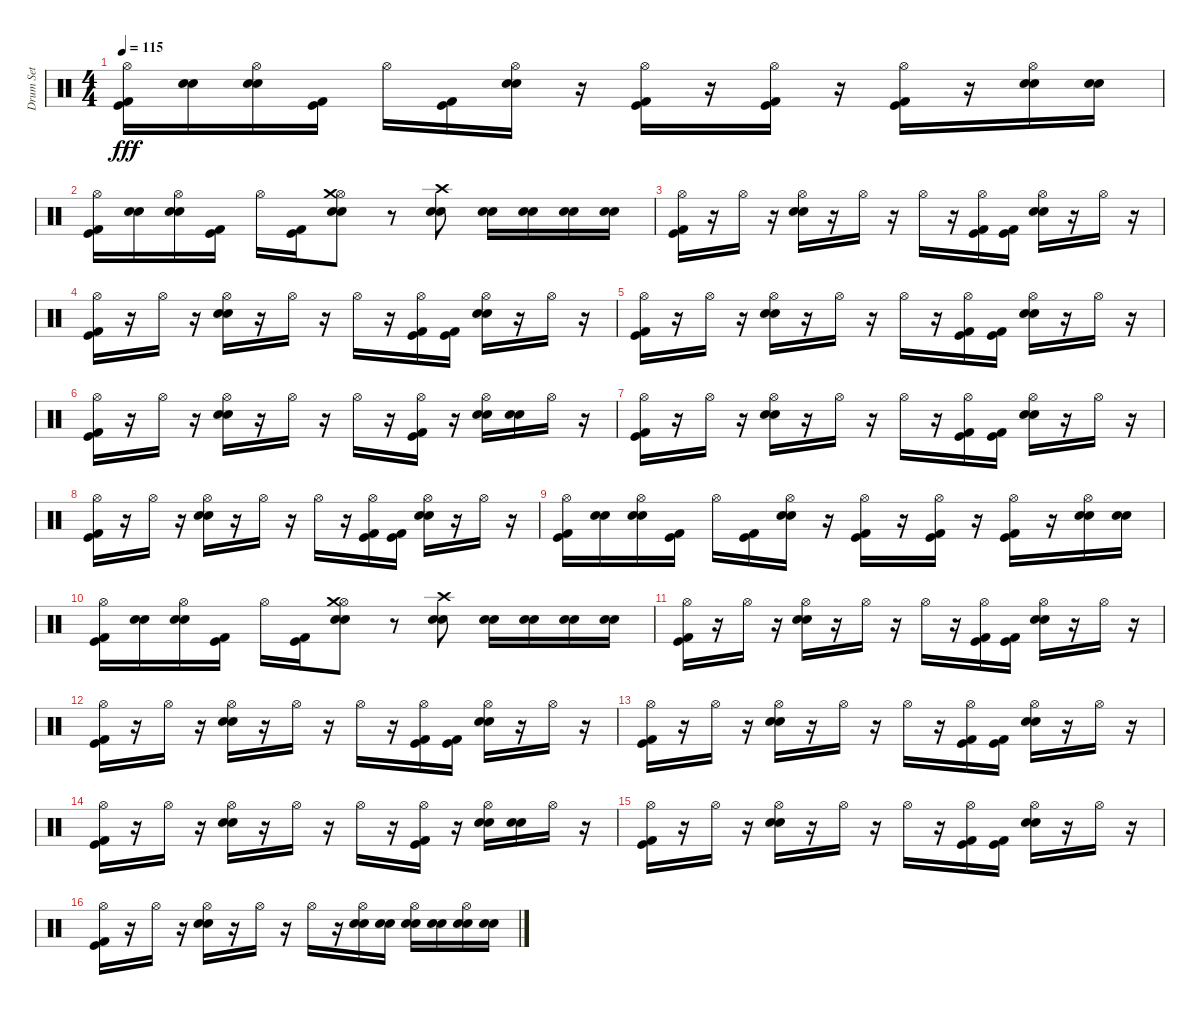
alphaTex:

\track ("Drum Set" "Drum Set") {instrument percussion}
\staff {score}
\articulation defaults
\ts (4 4)
\tempo 115
\clef neutral
\ks c
("Hi-Hat (open)" "Kick (hit) 2" "Kick (hit)").16{dy fff} ("Electric Snare (hit)" "Snare (hit) 2").16 ("Hi-Hat (open)" "Snare (hit) 2" "Electric Snare (hit)").16 ("Kick (hit)" "Kick (hit) 2").16 "Hi-Hat (open)".16 ("Kick (hit) 2" "Kick (hit)").16 ("Hi-Hat (open)" "Electric Snare (hit)" "Snare (hit) 2").16 r.16 ("Kick (hit)" "Kick (hit) 2" "Hi-Hat (open)").16 r.16 ("Hi-Hat (open)" "Kick (hit) 2" "Kick (hit)").16 r.16 ("Hi-Hat (open)" "Kick (hit)" "Kick (hit) 2").16 r.16 ("Hi-Hat (open)" "Electric Snare (hit)" "Snare (hit) 2").16 ("Snare (hit) 2" "Electric Snare (hit)").16 |
("Hi-Hat (open)" "Kick (hit) 2" "Kick (hit)").16 ("Electric Snare (hit)" "Snare (hit) 2").16 ("Hi-Hat (open)" "Snare (hit) 2" "Electric Snare (hit)").16 ("Kick (hit)" "Kick (hit) 2").16 "Hi-Hat (open)".16 ("Kick (hit) 2" "Kick (hit)").16 ("Hi-Hat (open)" "Electric Snare (hit)" "Snare (hit) 2" "Crash medium (hit)").8 r.8 ("Snare (hit) 2" "Electric Snare (hit)" "Crash high (hit)").8 ("Snare (hit) 2" "Electric Snare (hit)").16 ("Electric Snare (hit)" "Snare (hit) 2").16 ("Snare (hit) 2" "Electric Snare (hit)").16 ("Electric Snare (hit)" "Snare (hit) 2").16 |
("Hi-Hat (open)" "Kick (hit)" "Kick (hit) 2").16 r.16 "Hi-Hat (open)".16 r.16 ("Hi-Hat (open)" "Electric Snare (hit)" "Snare (hit) 2").16 r.16 "Hi-Hat (open)".16 r.16 "Hi-Hat (open)".16 r.16 ("Hi-Hat (open)" "Kick (hit) 2" "Kick (hit)").16 ("Kick (hit) 2" "Kick (hit)").16 ("Hi-Hat (open)" "Electric Snare (hit)" "Snare (hit) 2").16 r.16 "Hi-Hat (open)".16 r.16 |
("Kick (hit)" "Kick (hit) 2" "Hi-Hat (open)").16 r.16 "Hi-Hat (open)".16 r.16 ("Electric Snare (hit)" "Snare (hit) 2" "Hi-Hat (open)").16 r.16 "Hi-Hat (open)".16 r.16 "Hi-Hat (open)".16 r.16 ("Kick (hit) 2" "Kick (hit)" "Hi-Hat (open)").16 ("Kick (hit) 2" "Kick (hit)").16 ("Electric Snare (hit)" "Snare (hit) 2" "Hi-Hat (open)").16 r.16 "Hi-Hat (open)".16 r.16 |
("Kick (hit)" "Kick (hit) 2" "Hi-Hat (open)").16 r.16 "Hi-Hat (open)".16 r.16 ("Electric Snare (hit)" "Snare (hit) 2" "Hi-Hat (open)").16 r.16 "Hi-Hat (open)".16 r.16 "Hi-Hat (open)".16 r.16 ("Kick (hit) 2" "Kick (hit)" "Hi-Hat (open)").16 ("Kick (hit) 2" "Kick (hit)").16 ("Electric Snare (hit)" "Snare (hit) 2" "Hi-Hat (open)").16 r.16 "Hi-Hat (open)".16 r.16 |
("Kick (hit)" "Kick (hit) 2" "Hi-Hat (open)").16 r.16 "Hi-Hat (open)".16 r.16 ("Electric Snare (hit)" "Snare (hit) 2" "Hi-Hat (open)").16 r.16 "Hi-Hat (open)".16 r.16 "Hi-Hat (open)".16 r.16 ("Kick (hit) 2" "Kick (hit)" "Hi-Hat (open)").16 r.16 ("Electric Snare (hit)" "Snare (hit) 2" "Hi-Hat (open)").16 ("Snare (hit) 2" "Electric Snare (hit)").16 "Hi-Hat (open)".16 r.16 |
("Hi-Hat (open)" "Kick (hit)" "Kick (hit) 2").16 r.16 "Hi-Hat (open)".16 r.16 ("Electric Snare (hit)" "Snare (hit) 2" "Hi-Hat (open)").16 r.16 "Hi-Hat (open)".16 r.16 "Hi-Hat (open)".16 r.16 ("Hi-Hat (open)" "Kick (hit)" "Kick (hit) 2").16 ("Kick (hit) 2" "Kick (hit)").16 ("Hi-Hat (open)" "Electric Snare (hit)" "Snare (hit) 2").16 r.16 "Hi-Hat (open)".16 r.16 |
("Kick (hit) 2" "Kick (hit)" "Hi-Hat (open)").16 r.16 "Hi-Hat (open)".16 r.16 ("Electric Snare (hit)" "Snare (hit) 2" "Hi-Hat (open)").16 r.16 "Hi-Hat (open)".16 r.16 "Hi-Hat (open)".16 r.16 ("Kick (hit) 2" "Kick (hit)" "Hi-Hat (open)").16 ("Kick (hit)" "Kick (hit) 2").16 ("Electric Snare (hit)" "Snare (hit) 2" "Hi-Hat (open)").16 r.16 "Hi-Hat (open)".16 r.16 |
("Hi-Hat (open)" "Kick (hit) 2" "Kick (hit)").16 ("Electric Snare (hit)" "Snare (hit) 2").16 ("Hi-Hat (open)" "Snare (hit) 2" "Electric Snare (hit)").16 ("Kick (hit)" "Kick (hit) 2").16 "Hi-Hat (open)".16 ("Kick (hit) 2" "Kick (hit)").16 ("Hi-Hat (open)" "Electric Snare (hit)" "Snare (hit) 2").16 r.16 ("Kick (hit)" "Kick (hit) 2" "Hi-Hat (open)").16 r.16 ("Hi-Hat (open)" "Kick (hit) 2" "Kick (hit)").16 r.16 ("Hi-Hat (open)" "Kick (hit)" "Kick (hit) 2").16 r.16 ("Hi-Hat (open)" "Electric Snare (hit)" "Snare (hit) 2").16 ("Snare (hit) 2" "Electric Snare (hit)").16 |
("Hi-Hat (open)" "Kick (hit) 2" "Kick (hit)").16 ("Electric Snare (hit)" "Snare (hit) 2").16 ("Hi-Hat (open)" "Snare (hit) 2" "Electric Snare (hit)").16 ("Kick (hit)" "Kick (hit) 2").16 "Hi-Hat (open)".16 ("Kick (hit) 2" "Kick (hit)").16 ("Hi-Hat (open)" "Electric Snare (hit)" "Snare (hit) 2" "Crash medium (hit)").8 r.8 ("Snare (hit) 2" "Electric Snare (hit)" "Crash high (hit)").8 ("Snare (hit) 2" "Electric Snare (hit)").16 ("Electric Snare (hit)" "Snare (hit) 2").16 ("Snare (hit) 2" "Electric Snare (hit)").16 ("Electric Snare (hit)" "Snare (hit) 2").16 |
("Hi-Hat (open)" "Kick (hit)" "Kick (hit) 2").16 r.16 "Hi-Hat (open)".16 r.16 ("Hi-Hat (open)" "Electric Snare (hit)" "Snare (hit) 2").16 r.16 "Hi-Hat (open)".16 r.16 "Hi-Hat (open)".16 r.16 ("Hi-Hat (open)" "Kick (hit) 2" "Kick (hit)").16 ("Kick (hit) 2" "Kick (hit)").16 ("Hi-Hat (open)" "Electric Snare (hit)" "Snare (hit) 2").16 r.16 "Hi-Hat (open)".16 r.16 |
("Kick (hit)" "Kick (hit) 2" "Hi-Hat (open)").16 r.16 "Hi-Hat (open)".16 r.16 ("Electric Snare (hit)" "Snare (hit) 2" "Hi-Hat (open)").16 r.16 "Hi-Hat (open)".16 r.16 "Hi-Hat (open)".16 r.16 ("Kick (hit) 2" "Kick (hit)" "Hi-Hat (open)").16 ("Kick (hit) 2" "Kick (hit)").16 ("Electric Snare (hit)" "Snare (hit) 2" "Hi-Hat (open)").16 r.16 "Hi-Hat (open)".16 r.16 |
("Hi-Hat (open)" "Kick (hit)" "Kick (hit) 2").16 r.16 "Hi-Hat (open)".16 r.16 ("Hi-Hat (open)" "Electric Snare (hit)" "Snare (hit) 2").16 r.16 "Hi-Hat (open)".16 r.16 "Hi-Hat (open)".16 r.16 ("Hi-Hat (open)" "Kick (hit) 2" "Kick (hit)").16 ("Kick (hit) 2" "Kick (hit)").16 ("Hi-Hat (open)" "Electric Snare (hit)" "Snare (hit) 2").16 r.16 "Hi-Hat (open)".16 r.16 |
("Hi-Hat (open)" "Kick (hit)" "Kick (hit) 2").16 r.16 "Hi-Hat (open)".16 r.16 ("Hi-Hat (open)" "Electric Snare (hit)" "Snare (hit) 2").16 r.16 "Hi-Hat (open)".16 r.16 "Hi-Hat (open)".16 r.16 ("Hi-Hat (open)" "Kick (hit) 2" "Kick (hit)").16 r.16 ("Hi-Hat (open)" "Electric Snare (hit)" "Snare (hit) 2").16 ("Snare (hit) 2" "Electric Snare (hit)").16 "Hi-Hat (open)".16 r.16 |
("Hi-Hat (open)" "Kick (hit)" "Kick (hit) 2").16 r.16 "Hi-Hat (open)".16 r.16 ("Electric Snare (hit)" "Snare (hit) 2" "Hi-Hat (open)").16 r.16 "Hi-Hat (open)".16 r.16 "Hi-Hat (open)".16 r.16 ("Hi-Hat (open)" "Kick (hit)" "Kick (hit) 2").16 ("Kick (hit) 2" "Kick (hit)").16 ("Hi-Hat (open)" "Electric Snare (hit)" "Snare (hit) 2").16 r.16 "Hi-Hat (open)".16 r.16 |
("Kick (hit) 2" "Kick (hit)" "Hi-Hat (open)").16 r.16 "Hi-Hat (open)".16 r.16 ("Electric Snare (hit)" "Snare (hit) 2" "Hi-Hat (open)").16 r.16 "Hi-Hat (open)".16 r.16 "Hi-Hat (open)".16 r.16 ("Electric Snare (hit)" "Snare (hit) 2" "Hi-Hat (open)").16 ("Snare (hit) 2" "Electric Snare (hit)").16 ("Electric Snare (hit)" "Snare (hit) 2" "Hi-Hat (open)").16 ("Snare (hit) 2" "Electric Snare (hit)").16 ("Snare (hit) 2" "Electric Snare (hit)" "Hi-Hat (open)").16 ("Snare (hit) 2" "Electric Snare (hit)").16
